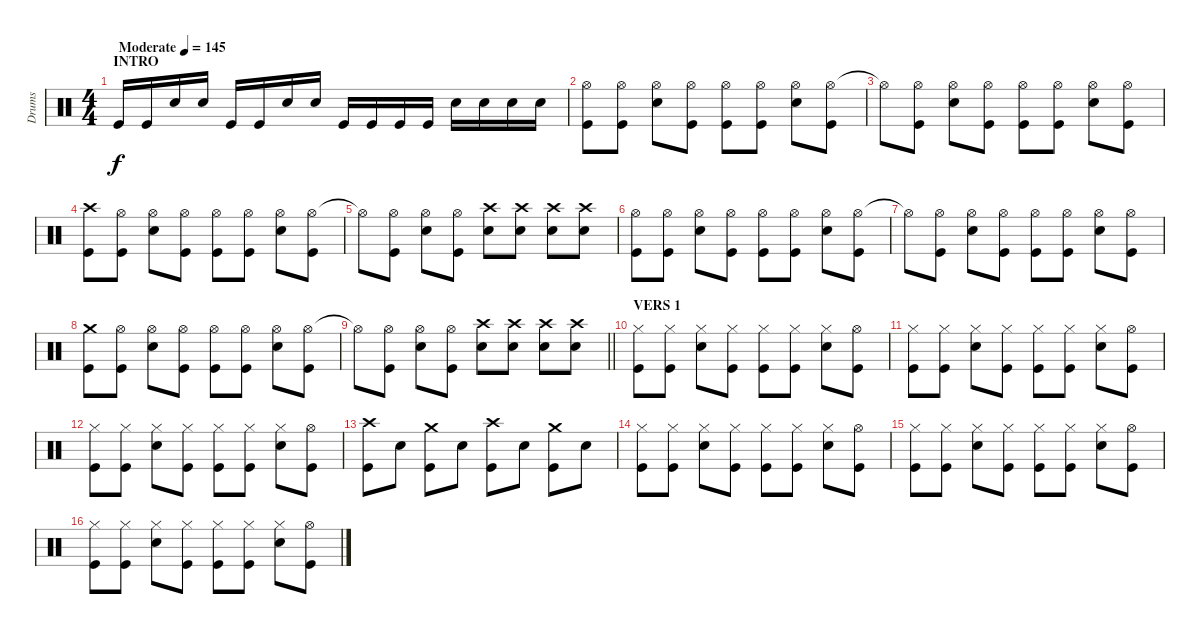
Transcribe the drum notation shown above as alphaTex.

\track ("Drums" "Drums") {instrument percussion}
\staff {score}
\articulation defaults
\ts (4 4)
\section ("" "INTRO")
\tempo (145 "Moderate")
\clef neutral
\ks c "Kick (hit)".16{dy f} "Kick (hit)".16 "Snare (hit) 2".16 "Snare (hit) 2".16 "Kick (hit)".16 "Kick (hit)".16 "Snare (hit) 2".16 "Snare (hit) 2".16 "Kick (hit)".16 "Kick (hit)".16 "Kick (hit)".16 "Kick (hit)".16 "Snare (hit) 2".16 "Snare (hit) 2".16 "Snare (hit) 2".16 "Snare (hit) 2".16
|
("Hi-Hat (open)" "Kick (hit)").8 ("Hi-Hat (open)" "Kick (hit)").8 ("Hi-Hat (open)" "Snare (hit) 2").8 ("Hi-Hat (open)" "Kick (hit)").8 ("Hi-Hat (open)" "Kick (hit)").8 ("Hi-Hat (open)" "Kick (hit)").8 ("Hi-Hat (open)" "Snare (hit) 2").8 ("Hi-Hat (open)" "Kick (hit)").8 |
"Hi-Hat (open)"{t}.8 ("Hi-Hat (open)" "Kick (hit)").8 ("Hi-Hat (open)" "Snare (hit) 2").8 ("Hi-Hat (open)" "Kick (hit)").8 ("Hi-Hat (open)" "Kick (hit)").8 ("Hi-Hat (open)" "Kick (hit)").8 ("Hi-Hat (open)" "Snare (hit) 2").8 ("Hi-Hat (open)" "Kick (hit)").8 |
("Crash high (hit)" "Kick (hit)").8 ("Hi-Hat (open)" "Kick (hit)").8 ("Hi-Hat (open)" "Snare (hit) 2").8 ("Hi-Hat (open)" "Kick (hit)").8 ("Hi-Hat (open)" "Kick (hit)").8 ("Hi-Hat (open)" "Kick (hit)").8 ("Hi-Hat (open)" "Snare (hit) 2").8 ("Hi-Hat (open)" "Kick (hit)").8 |
"Hi-Hat (open)"{t}.8 ("Hi-Hat (open)" "Kick (hit)").8 ("Hi-Hat (open)" "Snare (hit) 2").8 ("Hi-Hat (open)" "Kick (hit)").8 ("Crash high (hit)" "Snare (hit) 2").8 ("Crash high (hit)" "Snare (hit) 2").8 ("Crash high (hit)" "Snare (hit) 2").8 ("Crash high (hit)" "Snare (hit) 2").8 |
("Hi-Hat (open)" "Kick (hit)").8 ("Hi-Hat (open)" "Kick (hit)").8 ("Hi-Hat (open)" "Snare (hit) 2").8 ("Hi-Hat (open)" "Kick (hit)").8 ("Hi-Hat (open)" "Kick (hit)").8 ("Hi-Hat (open)" "Kick (hit)").8 ("Hi-Hat (open)" "Snare (hit) 2").8 ("Hi-Hat (open)" "Kick (hit)").8 |
"Hi-Hat (open)"{t}.8 ("Hi-Hat (open)" "Kick (hit)").8 ("Hi-Hat (open)" "Snare (hit) 2").8 ("Hi-Hat (open)" "Kick (hit)").8 ("Hi-Hat (open)" "Kick (hit)").8 ("Hi-Hat (open)" "Kick (hit)").8 ("Hi-Hat (open)" "Snare (hit) 2").8 ("Hi-Hat (open)" "Kick (hit)").8 |
("Crash medium (hit)" "Kick (hit)").8 ("Hi-Hat (open)" "Kick (hit)").8 ("Hi-Hat (open)" "Snare (hit) 2").8 ("Hi-Hat (open)" "Kick (hit)").8 ("Hi-Hat (open)" "Kick (hit)").8 ("Hi-Hat (open)" "Kick (hit)").8 ("Hi-Hat (open)" "Snare (hit) 2").8 ("Hi-Hat (open)" "Kick (hit)").8 |
\barLineRight lightlight "Hi-Hat (open)"{t}.8
("Hi-Hat (open)" "Kick (hit)").8 ("Hi-Hat (open)" "Snare (hit) 2").8 ("Hi-Hat (open)" "Kick (hit)").8 ("Crash high (hit)" "Snare (hit) 2").8 ("Crash high (hit)" "Snare (hit) 2").8 ("Crash high (hit)" "Snare (hit) 2").8 ("Crash high (hit)" "Snare (hit) 2").8 |
\section ("" "VERS 1")
("Hi-Hat (closed)" "Kick (hit)").8 ("Hi-Hat (closed)" "Kick (hit)").8 ("Hi-Hat (closed)" "Snare (hit) 2").8 ("Hi-Hat (closed)" "Kick (hit)").8 ("Hi-Hat (closed)" "Kick (hit)").8 ("Hi-Hat (closed)" "Kick (hit)").8 ("Hi-Hat (closed)" "Snare (hit) 2").8 ("Hi-Hat (open)" "Kick (hit)").8 |
("Hi-Hat (closed)" "Kick (hit)").8 ("Hi-Hat (closed)" "Kick (hit)").8 ("Hi-Hat (closed)" "Snare (hit) 2").8 ("Hi-Hat (closed)" "Kick (hit)").8 ("Hi-Hat (closed)" "Kick (hit)").8 ("Hi-Hat (closed)" "Kick (hit)").8 ("Hi-Hat (closed)" "Snare (hit) 2").8 ("Hi-Hat (open)" "Kick (hit)").8 |
("Hi-Hat (closed)" "Kick (hit)").8 ("Hi-Hat (closed)" "Kick (hit)").8 ("Hi-Hat (closed)" "Snare (hit) 2").8 ("Hi-Hat (closed)" "Kick (hit)").8 ("Hi-Hat (closed)" "Kick (hit)").8 ("Hi-Hat (closed)" "Kick (hit)").8 ("Hi-Hat (closed)" "Snare (hit) 2").8 ("Hi-Hat (open)" "Kick (hit)").8 |
("Crash high (hit)" "Kick (hit)").8 "Snare (hit) 2".8 ("Crash medium (hit)" "Kick (hit)").8 "Snare (hit) 2".8 ("Crash high (hit)" "Kick (hit)").8 "Snare (hit) 2".8 ("Crash medium (hit)" "Kick (hit)").8 "Snare (hit) 2".8 |
("Hi-Hat (closed)" "Kick (hit)").8 ("Hi-Hat (closed)" "Kick (hit)").8 ("Hi-Hat (closed)" "Snare (hit) 2").8 ("Hi-Hat (closed)" "Kick (hit)").8 ("Hi-Hat (closed)" "Kick (hit)").8 ("Hi-Hat (closed)" "Kick (hit)").8 ("Hi-Hat (closed)" "Snare (hit) 2").8 ("Hi-Hat (open)" "Kick (hit)").8 |
("Hi-Hat (closed)" "Kick (hit)").8 ("Hi-Hat (closed)" "Kick (hit)").8 ("Hi-Hat (closed)" "Snare (hit) 2").8 ("Hi-Hat (closed)" "Kick (hit)").8 ("Hi-Hat (closed)" "Kick (hit)").8 ("Hi-Hat (closed)" "Kick (hit)").8 ("Hi-Hat (closed)" "Snare (hit) 2").8 ("Hi-Hat (open)" "Kick (hit)").8 |
("Hi-Hat (closed)" "Kick (hit)").8 ("Hi-Hat (closed)" "Kick (hit)").8 ("Hi-Hat (closed)" "Snare (hit) 2").8 ("Hi-Hat (closed)" "Kick (hit)").8 ("Hi-Hat (closed)" "Kick (hit)").8 ("Hi-Hat (closed)" "Kick (hit)").8 ("Hi-Hat (closed)" "Snare (hit) 2").8 ("Hi-Hat (open)" "Kick (hit)").8
